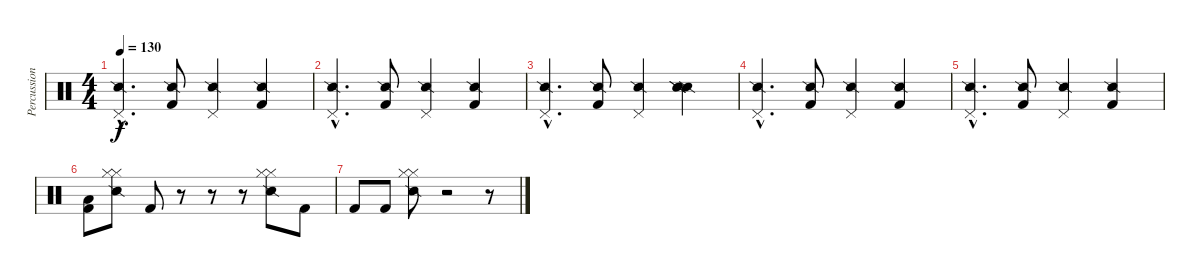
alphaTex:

\track ("Percussions" "Percussion") {instrument percussion}
\staff {score}
\articulation defaults
\ts (4 4)
\tempo 130
\clef neutral
\ks c
("Pedal Hi-Hat (hit)"{hac} "Snare (side stick) 2"{hac}).4{d dy f} ("Kick (hit) 2" "Snare (side stick) 2").8 ("Pedal Hi-Hat (hit)" "Snare (side stick) 2").4 ("Kick (hit) 2" "Snare (side stick) 2").4 |
("Pedal Hi-Hat (hit)"{hac} "Snare (side stick) 2"{hac}).4{d} ("Kick (hit) 2" "Snare (side stick) 2").8 ("Pedal Hi-Hat (hit)" "Snare (side stick) 2").4 ("Kick (hit) 2" "Snare (side stick) 2").4 |
("Pedal Hi-Hat (hit)"{hac} "Snare (side stick) 2"{hac}).4{d} ("Kick (hit) 2" "Snare (side stick) 2").8 ("Pedal Hi-Hat (hit)" "Snare (side stick) 2").4 ("Snare (side stick) 2" "Snare (side stick) 2" "Snare (side stick) 2").4 |
("Pedal Hi-Hat (hit)"{hac} "Snare (side stick) 2"{hac}).4{d} ("Kick (hit) 2" "Snare (side stick) 2").8 ("Pedal Hi-Hat (hit)" "Snare (side stick) 2").4 ("Kick (hit) 2" "Snare (side stick) 2").4 |
("Pedal Hi-Hat (hit)"{hac} "Snare (side stick) 2"{hac}).4{d} ("Kick (hit) 2" "Snare (side stick) 2").8 ("Pedal Hi-Hat (hit)" "Snare (side stick) 2").4 ("Kick (hit) 2" "Snare (side stick) 2").4 |
("Kick (hit) 2" "Low Floor Tom (hit)").8 ("Snare (side stick) 2" "Hi-Hat (closed)" "Hi-Hat (closed)").8 "Kick (hit) 2".8 r.8 r.8 r.8 ("Snare (side stick) 2" "Hi-Hat (closed)" "Hi-Hat (closed)").8 "Kick (hit) 2".8 |
"Kick (hit) 2".8 "Kick (hit) 2".8 ("Snare (side stick) 2" "Hi-Hat (closed)" "Hi-Hat (closed)").8 r.2 r.8
